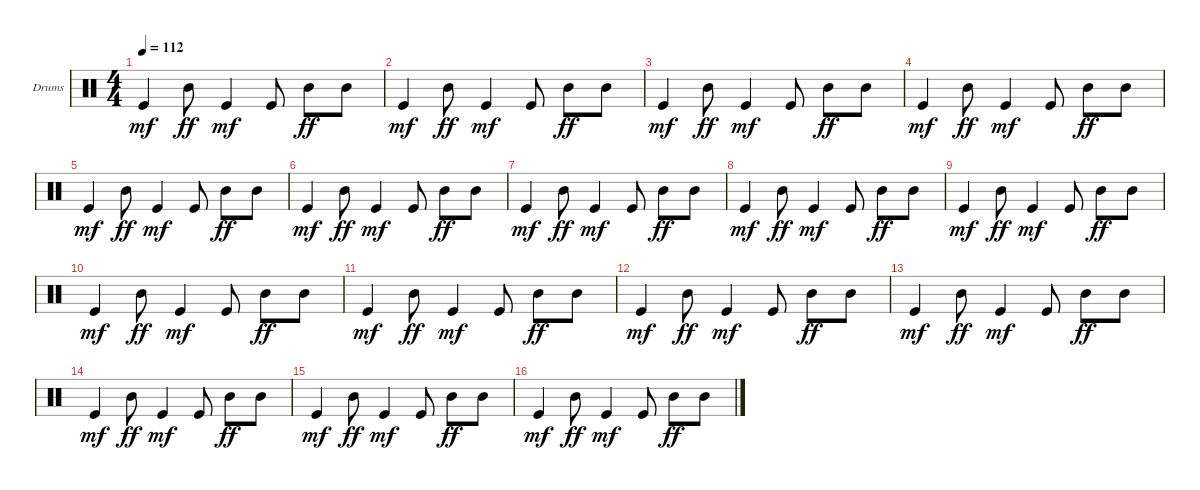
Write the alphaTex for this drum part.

\defaultSystemsLayout 4
\bracketExtendMode groupsimilarinstruments
\firstSystemTrackNameOrientation horizontal
\otherSystemsTrackNameOrientation horizontal
\track ("Drumkit" "Drums") {instrument percussion}
\staff {score}
\articulation defaults
\ts (4 4)
\tempo 112
\clef neutral
\scale
1.07945
\ks c "Kick (hit)".4{dy mf} "Mid Tom (hit)".8{dy ff} "Kick (hit)".4{dy mf} "Kick (hit)".8 "Mid Tom (hit)".8{dy ff} "Mid Tom (hit)".8
|
\scale
0.973518 "Kick (hit)".4{dy mf} "Mid Tom (hit)".8{dy ff} "Kick (hit)".4{dy mf} "Kick (hit)".8 "Mid Tom (hit)".8{dy ff} "Mid Tom (hit)".8 |
\scale
0.973518 "Kick (hit)".4{dy mf} "Mid Tom (hit)".8{dy ff} "Kick (hit)".4{dy mf} "Kick (hit)".8 "Mid Tom (hit)".8{dy ff} "Mid Tom (hit)".8 |
\scale
0.973518 "Kick (hit)".4{dy mf} "Mid Tom (hit)".8{dy ff} "Kick (hit)".4{dy mf} "Kick (hit)".8 "Mid Tom (hit)".8{dy ff} "Mid Tom (hit)".8 |
\scale
1.07945 "Kick (hit)".4{dy mf} "Mid Tom (hit)".8{dy ff} "Kick (hit)".4{dy mf} "Kick (hit)".8 "Mid Tom (hit)".8{dy ff} "Mid Tom (hit)".8 |
\scale
0.973518 "Kick (hit)".4{dy mf} "Mid Tom (hit)".8{dy ff} "Kick (hit)".4{dy mf} "Kick (hit)".8 "Mid Tom (hit)".8{dy ff} "Mid Tom (hit)".8 |
\scale
0.973518 "Kick (hit)".4{dy mf} "Mid Tom (hit)".8{dy ff} "Kick (hit)".4{dy mf} "Kick (hit)".8 "Mid Tom (hit)".8{dy ff} "Mid Tom (hit)".8 |
\scale
0.973518 "Kick (hit)".4{dy mf} "Mid Tom (hit)".8{dy ff} "Kick (hit)".4{dy mf} "Kick (hit)".8 "Mid Tom (hit)".8{dy ff} "Mid Tom (hit)".8 |
\scale
1.07945 "Kick (hit)".4{dy mf} "Mid Tom (hit)".8{dy ff} "Kick (hit)".4{dy mf} "Kick (hit)".8 "Mid Tom (hit)".8{dy ff} "Mid Tom (hit)".8 |
\scale
0.973518 "Kick (hit)".4{dy mf} "Mid Tom (hit)".8{dy ff} "Kick (hit)".4{dy mf} "Kick (hit)".8 "Mid Tom (hit)".8{dy ff} "Mid Tom (hit)".8 |
\scale
0.973518 "Kick (hit)".4{dy mf} "Mid Tom (hit)".8{dy ff} "Kick (hit)".4{dy mf} "Kick (hit)".8 "Mid Tom (hit)".8{dy ff} "Mid Tom (hit)".8 |
\scale
0.973518 "Kick (hit)".4{dy mf} "Mid Tom (hit)".8{dy ff} "Kick (hit)".4{dy mf} "Kick (hit)".8 "Mid Tom (hit)".8{dy ff} "Mid Tom (hit)".8 |
\scale
1.07945 "Kick (hit)".4{dy mf} "Mid Tom (hit)".8{dy ff} "Kick (hit)".4{dy mf} "Kick (hit)".8 "Mid Tom (hit)".8{dy ff} "Mid Tom (hit)".8 |
\scale
0.973518 "Kick (hit)".4{dy mf} "Mid Tom (hit)".8{dy ff} "Kick (hit)".4{dy mf} "Kick (hit)".8 "Mid Tom (hit)".8{dy ff} "Mid Tom (hit)".8 |
\scale
0.973518 "Kick (hit)".4{dy mf} "Mid Tom (hit)".8{dy ff} "Kick (hit)".4{dy mf} "Kick (hit)".8 "Mid Tom (hit)".8{dy ff} "Mid Tom (hit)".8 |
\scale
0.973518 "Kick (hit)".4{dy mf} "Mid Tom (hit)".8{dy ff} "Kick (hit)".4{dy mf} "Kick (hit)".8 "Mid Tom (hit)".8{dy ff} "Mid Tom (hit)".8
